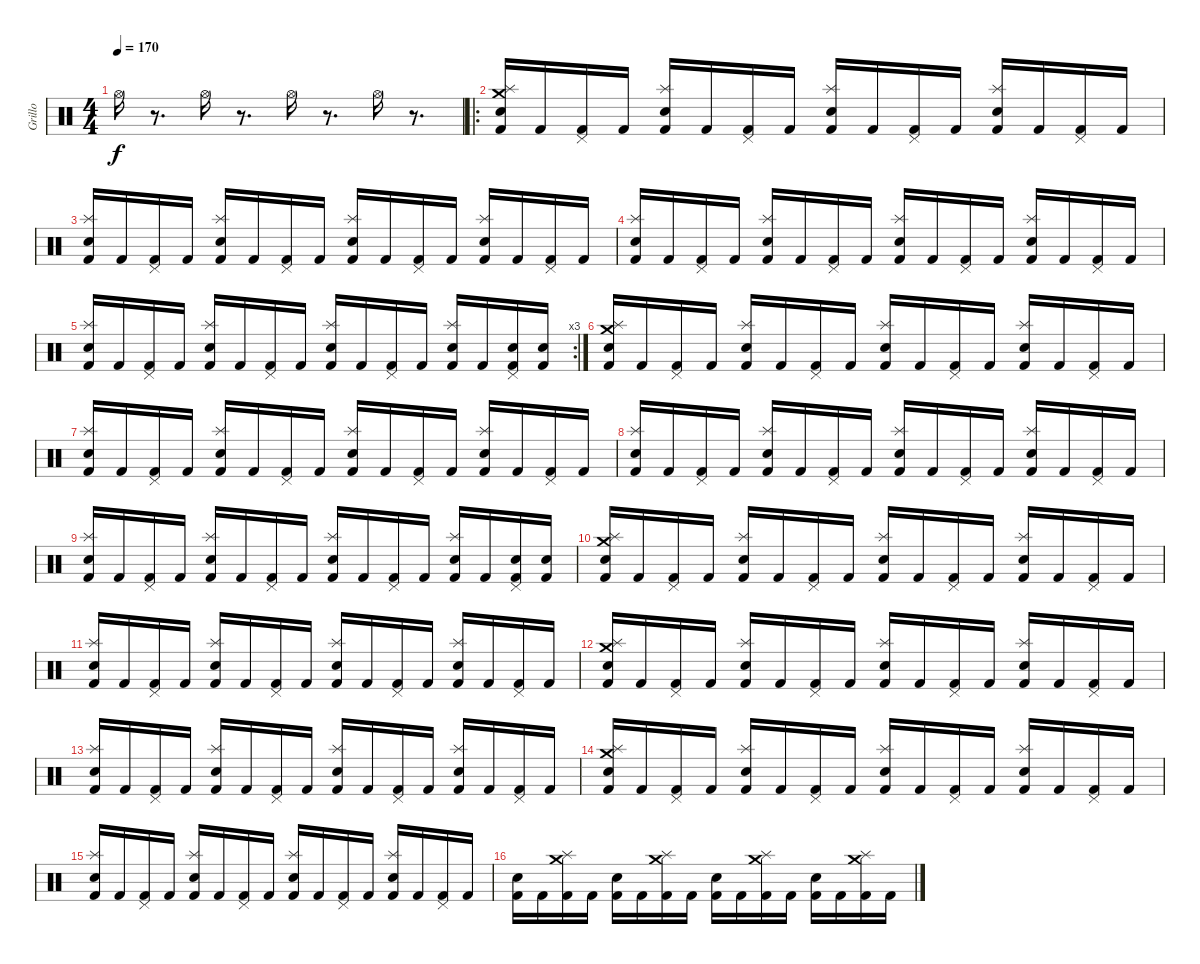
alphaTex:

\track ("Grillo" "Grillo") {instrument percussion}
\staff {score}
\articulation defaults
\ts (4 4)
\tempo 170
\clef neutral
\ks c "Hi-Hat (open)".16{dy f}
r.8{d} "Hi-Hat (open)".16 r.8{d} "Hi-Hat (open)".16 r.8{d} "Hi-Hat (open)".16 r.8{d} |
\ro
("Electric Snare (hit)" "Splash (hit)" "Crash medium (hit)" "Kick (hit) 2").16 "Kick (hit) 2".16 ("Pedal Hi-Hat (hit)" "Kick (hit) 2").16 "Kick (hit) 2".16 ("Electric Snare (hit)" "Splash (hit)" "Kick (hit) 2").16 "Kick (hit) 2".16 ("Pedal Hi-Hat (hit)" "Kick (hit) 2").16 "Kick (hit) 2".16 ("Electric Snare (hit)" "Splash (hit)" "Kick (hit) 2").16 "Kick (hit) 2".16 ("Pedal Hi-Hat (hit)" "Kick (hit) 2").16 "Kick (hit) 2".16 ("Electric Snare (hit)" "Splash (hit)" "Kick (hit) 2").16 "Kick (hit) 2".16 ("Pedal Hi-Hat (hit)" "Kick (hit) 2").16 "Kick (hit) 2".16 |
("Electric Snare (hit)" "Splash (hit)" "Kick (hit) 2").16 "Kick (hit) 2".16 ("Pedal Hi-Hat (hit)" "Kick (hit) 2").16 "Kick (hit) 2".16 ("Electric Snare (hit)" "Splash (hit)" "Kick (hit) 2").16 "Kick (hit) 2".16 ("Pedal Hi-Hat (hit)" "Kick (hit) 2").16 "Kick (hit) 2".16 ("Electric Snare (hit)" "Splash (hit)" "Kick (hit) 2").16 "Kick (hit) 2".16 ("Pedal Hi-Hat (hit)" "Kick (hit) 2").16 "Kick (hit) 2".16 ("Electric Snare (hit)" "Splash (hit)" "Kick (hit) 2").16 "Kick (hit) 2".16 ("Pedal Hi-Hat (hit)" "Kick (hit) 2").16 "Kick (hit) 2".16 |
("Electric Snare (hit)" "Splash (hit)" "Kick (hit) 2").16 "Kick (hit) 2".16 ("Pedal Hi-Hat (hit)" "Kick (hit) 2").16 "Kick (hit) 2".16 ("Electric Snare (hit)" "Splash (hit)" "Kick (hit) 2").16 "Kick (hit) 2".16 ("Pedal Hi-Hat (hit)" "Kick (hit) 2").16 "Kick (hit) 2".16 ("Electric Snare (hit)" "Splash (hit)" "Kick (hit) 2").16 "Kick (hit) 2".16 ("Pedal Hi-Hat (hit)" "Kick (hit) 2").16 "Kick (hit) 2".16 ("Electric Snare (hit)" "Splash (hit)" "Kick (hit) 2").16 "Kick (hit) 2".16 ("Pedal Hi-Hat (hit)" "Kick (hit) 2").16 "Kick (hit) 2".16 |
\rc 3
("Electric Snare (hit)" "Splash (hit)" "Kick (hit) 2").16 "Kick (hit) 2".16 ("Pedal Hi-Hat (hit)" "Kick (hit) 2").16 "Kick (hit) 2".16 ("Electric Snare (hit)" "Splash (hit)" "Kick (hit) 2").16 "Kick (hit) 2".16 ("Pedal Hi-Hat (hit)" "Kick (hit) 2").16 "Kick (hit) 2".16 ("Electric Snare (hit)" "Splash (hit)" "Kick (hit) 2").16 "Kick (hit) 2".16 ("Pedal Hi-Hat (hit)" "Kick (hit) 2").16 "Kick (hit) 2".16 ("Electric Snare (hit)" "Splash (hit)" "Kick (hit) 2").16 "Kick (hit) 2".16 ("Electric Snare (hit)" "Pedal Hi-Hat (hit)" "Kick (hit) 2").16 ("Electric Snare (hit)" "Kick (hit) 2").16 |
("Electric Snare (hit)" "Splash (hit)" "Crash medium (hit)" "Kick (hit) 2").16 "Kick (hit) 2".16 ("Pedal Hi-Hat (hit)" "Kick (hit) 2").16 "Kick (hit) 2".16 ("Electric Snare (hit)" "Splash (hit)" "Kick (hit) 2").16 "Kick (hit) 2".16 ("Pedal Hi-Hat (hit)" "Kick (hit) 2").16 "Kick (hit) 2".16 ("Electric Snare (hit)" "Splash (hit)" "Kick (hit) 2").16 "Kick (hit) 2".16 ("Pedal Hi-Hat (hit)" "Kick (hit) 2").16 "Kick (hit) 2".16 ("Electric Snare (hit)" "Splash (hit)" "Kick (hit) 2").16 "Kick (hit) 2".16 ("Pedal Hi-Hat (hit)" "Kick (hit) 2").16 "Kick (hit) 2".16 |
("Electric Snare (hit)" "Splash (hit)" "Kick (hit) 2").16 "Kick (hit) 2".16 ("Pedal Hi-Hat (hit)" "Kick (hit) 2").16 "Kick (hit) 2".16 ("Electric Snare (hit)" "Splash (hit)" "Kick (hit) 2").16 "Kick (hit) 2".16 ("Pedal Hi-Hat (hit)" "Kick (hit) 2").16 "Kick (hit) 2".16 ("Electric Snare (hit)" "Splash (hit)" "Kick (hit) 2").16 "Kick (hit) 2".16 ("Pedal Hi-Hat (hit)" "Kick (hit) 2").16 "Kick (hit) 2".16 ("Electric Snare (hit)" "Splash (hit)" "Kick (hit) 2").16 "Kick (hit) 2".16 ("Pedal Hi-Hat (hit)" "Kick (hit) 2").16 "Kick (hit) 2".16 |
("Electric Snare (hit)" "Splash (hit)" "Kick (hit) 2").16 "Kick (hit) 2".16 ("Pedal Hi-Hat (hit)" "Kick (hit) 2").16 "Kick (hit) 2".16 ("Electric Snare (hit)" "Splash (hit)" "Kick (hit) 2").16 "Kick (hit) 2".16 ("Pedal Hi-Hat (hit)" "Kick (hit) 2").16 "Kick (hit) 2".16 ("Electric Snare (hit)" "Splash (hit)" "Kick (hit) 2").16 "Kick (hit) 2".16 ("Pedal Hi-Hat (hit)" "Kick (hit) 2").16 "Kick (hit) 2".16 ("Electric Snare (hit)" "Splash (hit)" "Kick (hit) 2").16 "Kick (hit) 2".16 ("Pedal Hi-Hat (hit)" "Kick (hit) 2").16 "Kick (hit) 2".16 |
("Electric Snare (hit)" "Splash (hit)" "Kick (hit) 2").16 "Kick (hit) 2".16 ("Pedal Hi-Hat (hit)" "Kick (hit) 2").16 "Kick (hit) 2".16 ("Electric Snare (hit)" "Splash (hit)" "Kick (hit) 2").16 "Kick (hit) 2".16 ("Pedal Hi-Hat (hit)" "Kick (hit) 2").16 "Kick (hit) 2".16 ("Electric Snare (hit)" "Splash (hit)" "Kick (hit) 2").16 "Kick (hit) 2".16 ("Pedal Hi-Hat (hit)" "Kick (hit) 2").16 "Kick (hit) 2".16 ("Electric Snare (hit)" "Splash (hit)" "Kick (hit) 2").16 "Kick (hit) 2".16 ("Electric Snare (hit)" "Pedal Hi-Hat (hit)" "Kick (hit) 2").16 ("Electric Snare (hit)" "Kick (hit) 2").16 |
("Electric Snare (hit)" "Splash (hit)" "Crash medium (hit)" "Kick (hit) 2").16 "Kick (hit) 2".16 ("Pedal Hi-Hat (hit)" "Kick (hit) 2").16 "Kick (hit) 2".16 ("Electric Snare (hit)" "Splash (hit)" "Kick (hit) 2").16 "Kick (hit) 2".16 ("Pedal Hi-Hat (hit)" "Kick (hit) 2").16 "Kick (hit) 2".16 ("Electric Snare (hit)" "Splash (hit)" "Kick (hit) 2").16 "Kick (hit) 2".16 ("Pedal Hi-Hat (hit)" "Kick (hit) 2").16 "Kick (hit) 2".16 ("Electric Snare (hit)" "Splash (hit)" "Kick (hit) 2").16 "Kick (hit) 2".16 ("Pedal Hi-Hat (hit)" "Kick (hit) 2").16 "Kick (hit) 2".16 |
("Electric Snare (hit)" "Splash (hit)" "Kick (hit) 2").16 "Kick (hit) 2".16 ("Pedal Hi-Hat (hit)" "Kick (hit) 2").16 "Kick (hit) 2".16 ("Electric Snare (hit)" "Splash (hit)" "Kick (hit) 2").16 "Kick (hit) 2".16 ("Pedal Hi-Hat (hit)" "Kick (hit) 2").16 "Kick (hit) 2".16 ("Electric Snare (hit)" "Splash (hit)" "Kick (hit) 2").16 "Kick (hit) 2".16 ("Pedal Hi-Hat (hit)" "Kick (hit) 2").16 "Kick (hit) 2".16 ("Electric Snare (hit)" "Splash (hit)" "Kick (hit) 2").16 "Kick (hit) 2".16 ("Pedal Hi-Hat (hit)" "Kick (hit) 2").16 "Kick (hit) 2".16 |
("Electric Snare (hit)" "Splash (hit)" "Crash medium (hit)" "Kick (hit) 2").16 "Kick (hit) 2".16 ("Pedal Hi-Hat (hit)" "Kick (hit) 2").16 "Kick (hit) 2".16 ("Electric Snare (hit)" "Splash (hit)" "Kick (hit) 2").16 "Kick (hit) 2".16 ("Pedal Hi-Hat (hit)" "Kick (hit) 2").16 "Kick (hit) 2".16 ("Electric Snare (hit)" "Splash (hit)" "Kick (hit) 2").16 "Kick (hit) 2".16 ("Pedal Hi-Hat (hit)" "Kick (hit) 2").16 "Kick (hit) 2".16 ("Electric Snare (hit)" "Splash (hit)" "Kick (hit) 2").16 "Kick (hit) 2".16 ("Pedal Hi-Hat (hit)" "Kick (hit) 2").16 "Kick (hit) 2".16 |
("Electric Snare (hit)" "Splash (hit)" "Kick (hit) 2").16 "Kick (hit) 2".16 ("Pedal Hi-Hat (hit)" "Kick (hit) 2").16 "Kick (hit) 2".16 ("Electric Snare (hit)" "Splash (hit)" "Kick (hit) 2").16 "Kick (hit) 2".16 ("Pedal Hi-Hat (hit)" "Kick (hit) 2").16 "Kick (hit) 2".16 ("Electric Snare (hit)" "Splash (hit)" "Kick (hit) 2").16 "Kick (hit) 2".16 ("Pedal Hi-Hat (hit)" "Kick (hit) 2").16 "Kick (hit) 2".16 ("Electric Snare (hit)" "Splash (hit)" "Kick (hit) 2").16 "Kick (hit) 2".16 ("Pedal Hi-Hat (hit)" "Kick (hit) 2").16 "Kick (hit) 2".16 |
("Electric Snare (hit)" "Splash (hit)" "Crash medium (hit)" "Kick (hit) 2").16 "Kick (hit) 2".16 ("Pedal Hi-Hat (hit)" "Kick (hit) 2").16 "Kick (hit) 2".16 ("Electric Snare (hit)" "Splash (hit)" "Kick (hit) 2").16 "Kick (hit) 2".16 ("Pedal Hi-Hat (hit)" "Kick (hit) 2").16 "Kick (hit) 2".16 ("Electric Snare (hit)" "Splash (hit)" "Kick (hit) 2").16 "Kick (hit) 2".16 ("Pedal Hi-Hat (hit)" "Kick (hit) 2").16 "Kick (hit) 2".16 ("Electric Snare (hit)" "Splash (hit)" "Kick (hit) 2").16 "Kick (hit) 2".16 ("Pedal Hi-Hat (hit)" "Kick (hit) 2").16 "Kick (hit) 2".16 |
("Electric Snare (hit)" "Splash (hit)" "Kick (hit) 2").16 "Kick (hit) 2".16 ("Pedal Hi-Hat (hit)" "Kick (hit) 2").16 "Kick (hit) 2".16 ("Electric Snare (hit)" "Splash (hit)" "Kick (hit) 2").16 "Kick (hit) 2".16 ("Pedal Hi-Hat (hit)" "Kick (hit) 2").16 "Kick (hit) 2".16 ("Electric Snare (hit)" "Splash (hit)" "Kick (hit) 2").16 "Kick (hit) 2".16 ("Pedal Hi-Hat (hit)" "Kick (hit) 2").16 "Kick (hit) 2".16 ("Electric Snare (hit)" "Splash (hit)" "Kick (hit) 2").16 "Kick (hit) 2".16 ("Pedal Hi-Hat (hit)" "Kick (hit) 2").16 "Kick (hit) 2".16 |
("Electric Snare (hit)" "Kick (hit) 2").16 "Kick (hit) 2".16 ("Crash medium (hit)" "Splash (hit)" "Kick (hit) 2").16 "Kick (hit) 2".16 ("Electric Snare (hit)" "Kick (hit) 2").16 "Kick (hit) 2".16 ("Splash (hit)" "Crash medium (hit)" "Kick (hit) 2").16 "Kick (hit) 2".16 ("Electric Snare (hit)" "Kick (hit) 2").16 "Kick (hit) 2".16 ("Splash (hit)" "Crash medium (hit)" "Kick (hit) 2").16 "Kick (hit) 2".16 ("Electric Snare (hit)" "Kick (hit) 2").16 "Kick (hit) 2".16 ("Crash medium (hit)" "Splash (hit)" "Kick (hit) 2").16 "Kick (hit) 2".16
